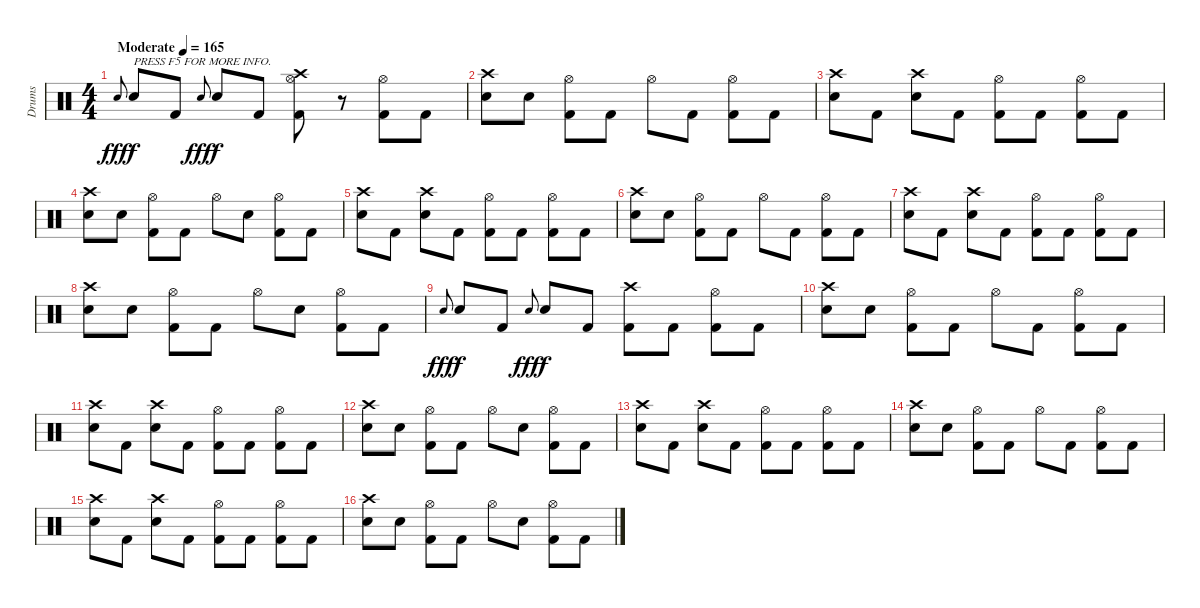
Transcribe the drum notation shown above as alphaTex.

\track ("Drums" "Drums") {instrument percussion}
\staff {score}
\articulation defaults
\ts (4 4)
\tempo (165 "Moderate")
\clef neutral
\ks c "Electric Snare (hit)".8{gr onbeat dy fff} "Electric Snare (hit)".8{txt "PRESS F5 FOR MORE INFO." dy f} "Kick (hit) 2".8 "Electric Snare (hit)".8{gr onbeat dy fff} "Electric Snare (hit)".8{dy f} "Kick (hit) 2".8
("Crash high (hit)" "Hi-Hat (open)" "Kick (hit) 2").8 r.8 ("Hi-Hat (open)" "Kick (hit) 2").8 "Kick (hit) 2".8 |
("Crash high (hit)" "Electric Snare (hit)").8 "Electric Snare (hit)".8 ("Hi-Hat (open)" "Kick (hit) 2").8 "Kick (hit) 2".8 "Hi-Hat (open)".8 "Kick (hit) 2".8 ("Hi-Hat (open)" "Kick (hit) 2").8 "Kick (hit) 2".8 |
("Crash high (hit)" "Electric Snare (hit)").8 "Kick (hit) 2".8 ("Crash high (hit)" "Electric Snare (hit)").8 "Kick (hit) 2".8 ("Hi-Hat (open)" "Kick (hit) 2").8 "Kick (hit) 2".8 ("Hi-Hat (open)" "Kick (hit) 2").8 "Kick (hit) 2".8 |
("Crash high (hit)" "Electric Snare (hit)").8 "Electric Snare (hit)".8 ("Hi-Hat (open)" "Kick (hit) 2").8 "Kick (hit) 2".8 "Hi-Hat (open)".8 "Electric Snare (hit)".8 ("Hi-Hat (open)" "Kick (hit) 2").8 "Kick (hit) 2".8 |
("Crash high (hit)" "Electric Snare (hit)").8 "Kick (hit) 2".8 ("Crash high (hit)" "Electric Snare (hit)").8 "Kick (hit) 2".8 ("Hi-Hat (open)" "Kick (hit) 2").8 "Kick (hit) 2".8 ("Hi-Hat (open)" "Kick (hit) 2").8 "Kick (hit) 2".8 |
("Crash high (hit)" "Electric Snare (hit)").8 "Electric Snare (hit)".8 ("Hi-Hat (open)" "Kick (hit) 2").8 "Kick (hit) 2".8 "Hi-Hat (open)".8 "Kick (hit) 2".8 ("Hi-Hat (open)" "Kick (hit) 2").8 "Kick (hit) 2".8 |
("Crash high (hit)" "Electric Snare (hit)").8 "Kick (hit) 2".8 ("Crash high (hit)" "Electric Snare (hit)").8 "Kick (hit) 2".8 ("Hi-Hat (open)" "Kick (hit) 2").8 "Kick (hit) 2".8 ("Hi-Hat (open)" "Kick (hit) 2").8 "Kick (hit) 2".8 |
("Crash high (hit)" "Electric Snare (hit)").8 "Electric Snare (hit)".8 ("Hi-Hat (open)" "Kick (hit) 2").8 "Kick (hit) 2".8 "Hi-Hat (open)".8 "Electric Snare (hit)".8 ("Hi-Hat (open)" "Kick (hit) 2").8 "Kick (hit) 2".8 |
"Electric Snare (hit)".8{gr onbeat dy fff} "Electric Snare (hit)".8{dy f} "Kick (hit) 2".8 "Electric Snare (hit)".8{gr onbeat dy fff} "Electric Snare (hit)".8{dy f} "Kick (hit) 2".8 ("Crash high (hit)" "Kick (hit) 2").8 "Kick (hit) 2".8 ("Hi-Hat (open)" "Kick (hit) 2").8 "Kick (hit) 2".8 |
("Crash high (hit)" "Electric Snare (hit)").8 "Electric Snare (hit)".8 ("Hi-Hat (open)" "Kick (hit) 2").8 "Kick (hit) 2".8 "Hi-Hat (open)".8 "Kick (hit) 2".8 ("Hi-Hat (open)" "Kick (hit) 2").8 "Kick (hit) 2".8 |
("Crash high (hit)" "Electric Snare (hit)").8 "Kick (hit) 2".8 ("Crash high (hit)" "Electric Snare (hit)").8 "Kick (hit) 2".8 ("Hi-Hat (open)" "Kick (hit) 2").8 "Kick (hit) 2".8 ("Hi-Hat (open)" "Kick (hit) 2").8 "Kick (hit) 2".8 |
("Crash high (hit)" "Electric Snare (hit)").8 "Electric Snare (hit)".8 ("Hi-Hat (open)" "Kick (hit) 2").8 "Kick (hit) 2".8 "Hi-Hat (open)".8 "Electric Snare (hit)".8 ("Hi-Hat (open)" "Kick (hit) 2").8 "Kick (hit) 2".8 |
("Crash high (hit)" "Electric Snare (hit)").8 "Kick (hit) 2".8 ("Crash high (hit)" "Electric Snare (hit)").8 "Kick (hit) 2".8 ("Hi-Hat (open)" "Kick (hit) 2").8 "Kick (hit) 2".8 ("Hi-Hat (open)" "Kick (hit) 2").8 "Kick (hit) 2".8 |
("Crash high (hit)" "Electric Snare (hit)").8 "Electric Snare (hit)".8 ("Hi-Hat (open)" "Kick (hit) 2").8 "Kick (hit) 2".8 "Hi-Hat (open)".8 "Kick (hit) 2".8 ("Hi-Hat (open)" "Kick (hit) 2").8 "Kick (hit) 2".8 |
("Crash high (hit)" "Electric Snare (hit)").8 "Kick (hit) 2".8 ("Crash high (hit)" "Electric Snare (hit)").8 "Kick (hit) 2".8 ("Hi-Hat (open)" "Kick (hit) 2").8 "Kick (hit) 2".8 ("Hi-Hat (open)" "Kick (hit) 2").8 "Kick (hit) 2".8 |
("Crash high (hit)" "Electric Snare (hit)").8 "Electric Snare (hit)".8 ("Hi-Hat (open)" "Kick (hit) 2").8 "Kick (hit) 2".8 "Hi-Hat (open)".8 "Electric Snare (hit)".8 ("Hi-Hat (open)" "Kick (hit) 2").8 "Kick (hit) 2".8
